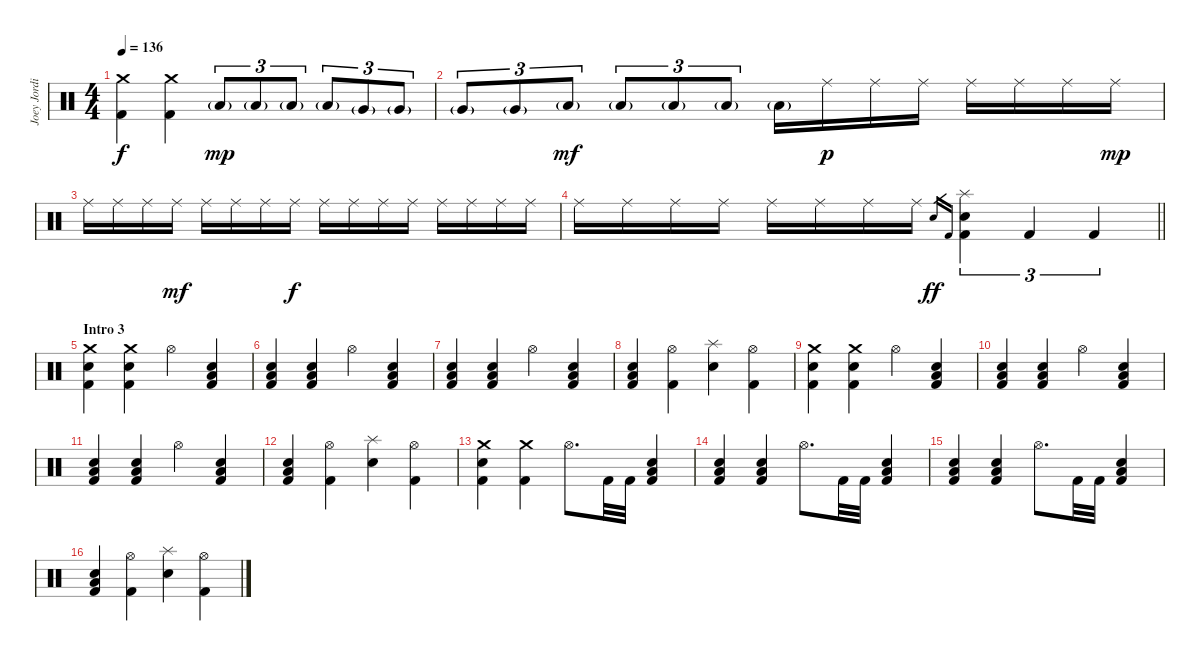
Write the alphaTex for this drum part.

\track ("Joey Jordison" "Joey Jordi") {instrument percussion}
\staff {score}
\articulation defaults
\ts (4 4)
\tempo 136
\clef neutral
\ks c
("Crash medium (hit)" "Kick (hit) 2").4{dy f} ("Crash medium (hit)" "Kick (hit) 2").4 "Low Tom (hit)"{g}.8{tu (3 2) dy mp balance 16} "Low Tom (hit)"{g}.8{tu (3 2)} "Low Tom (hit)"{g}.8{tu (3 2)} "Low Tom (hit)"{g}.8{tu (3 2)} "Very Low Tom (hit)"{g}.8{tu (3 2)} "Very Low Tom (hit)"{g}.8{tu (3 2)} |
"Very Low Tom (hit)"{g}.8{tu (3 2)} "Very Low Tom (hit)"{g}.8{tu (3 2)} "Low Floor Tom (hit)"{g}.8{tu (3 2) dy mf} "Low Floor Tom (hit)"{g}.8{tu (3 2)} "Low Floor Tom (hit)"{g}.8{tu (3 2)} "Low Floor Tom (hit)"{g}.8{tu (3 2)} "Low Floor Tom (hit)"{g}.16 "Ride (middle)".16{dy p balance 8} "Ride (middle)".16 "Ride (middle)".16 "Ride (middle)".16 "Ride (middle)".16 "Ride (middle)".16 "Ride (middle)".16{dy mp} |
"Ride (middle)".16 "Ride (middle)".16 "Ride (middle)".16 "Ride (middle)".16{dy mf} "Ride (middle)".16 "Ride (middle)".16 "Ride (middle)".16 "Ride (middle)".16{dy f} "Ride (middle)".16 "Ride (middle)".16 "Ride (middle)".16 "Ride (middle)".16 "Ride (middle)".16 "Ride (middle)".16 "Ride (middle)".16 "Ride (middle)".16 |
\barLineRight lightlight "Ride (middle)".16 "Ride (middle)".16 "Ride (middle)".16 "Ride (middle)".16 "Ride (middle)".16 "Ride (middle)".16 "Ride (middle)".16 "Ride (middle)".16 "Electric Snare (hit)".16{gr dy ff} "Kick (hit) 2".16{gr}
("Splash (hit)" "Electric Snare (hit)" "Kick (hit) 2").4{tu (3 2)} "Kick (hit) 2".4{tu (3 2)} "Kick (hit) 2".4{tu (3 2)} |
\section ("" "Intro 3")
("Crash medium (hit)" "Electric Snare (hit)" "Kick (hit) 2").4 ("Crash medium (hit)" "Electric Snare (hit)" "Kick (hit) 2").4 "Hi-Hat (open)".4 ("Electric Snare (hit)" "Low Floor Tom (hit)" "Kick (hit) 2").4 |
("Electric Snare (hit)" "Low Floor Tom (hit)" "Kick (hit) 2").4 ("Electric Snare (hit)" "Low Floor Tom (hit)" "Kick (hit) 2").4 "Hi-Hat (open)".4 ("Electric Snare (hit)" "Low Floor Tom (hit)" "Kick (hit) 2").4 |
("Electric Snare (hit)" "Low Floor Tom (hit)" "Kick (hit) 2").4 ("Electric Snare (hit)" "Low Floor Tom (hit)" "Kick (hit) 2").4 "Hi-Hat (open)".4 ("Electric Snare (hit)" "Low Floor Tom (hit)" "Kick (hit) 2").4 |
("Electric Snare (hit)" "Low Floor Tom (hit)" "Kick (hit) 2").4 ("Hi-Hat (open)" "Kick (hit) 2").4 ("Splash (hit)" "Electric Snare (hit)").4 ("Hi-Hat (open)" "Kick (hit) 2").4 |
("Crash medium (hit)" "Electric Snare (hit)" "Kick (hit) 2").4 ("Crash medium (hit)" "Electric Snare (hit)" "Kick (hit) 2").4 "Hi-Hat (open)".4 ("Electric Snare (hit)" "Low Floor Tom (hit)" "Kick (hit) 2").4 |
("Electric Snare (hit)" "Low Floor Tom (hit)" "Kick (hit) 2").4 ("Electric Snare (hit)" "Low Floor Tom (hit)" "Kick (hit) 2").4 "Hi-Hat (open)".4 ("Electric Snare (hit)" "Low Floor Tom (hit)" "Kick (hit) 2").4 |
("Electric Snare (hit)" "Low Floor Tom (hit)" "Kick (hit) 2").4 ("Electric Snare (hit)" "Low Floor Tom (hit)" "Kick (hit) 2").4 "Hi-Hat (open)".4 ("Electric Snare (hit)" "Low Floor Tom (hit)" "Kick (hit) 2").4 |
("Electric Snare (hit)" "Low Floor Tom (hit)" "Kick (hit) 2").4 ("Hi-Hat (open)" "Kick (hit) 2").4 ("Splash (hit)" "Electric Snare (hit)").4 ("Hi-Hat (open)" "Kick (hit) 2").4 |
("Crash medium (hit)" "Electric Snare (hit)" "Kick (hit) 2").4 ("Crash medium (hit)" "Kick (hit) 2").4 "Hi-Hat (open)".8{d} "Kick (hit) 2".32 "Kick (hit) 2".32 ("Electric Snare (hit)" "Low Floor Tom (hit)" "Kick (hit) 2").4 |
("Electric Snare (hit)" "Low Floor Tom (hit)" "Kick (hit) 2").4 ("Electric Snare (hit)" "Low Floor Tom (hit)" "Kick (hit) 2").4 "Hi-Hat (open)".8{d} "Kick (hit) 2".32 "Kick (hit) 2".32 ("Electric Snare (hit)" "Low Floor Tom (hit)" "Kick (hit) 2").4 |
("Electric Snare (hit)" "Low Floor Tom (hit)" "Kick (hit) 2").4 ("Electric Snare (hit)" "Low Floor Tom (hit)" "Kick (hit) 2").4 "Hi-Hat (open)".8{d} "Kick (hit) 2".32 "Kick (hit) 2".32 ("Electric Snare (hit)" "Low Floor Tom (hit)" "Kick (hit) 2").4 |
("Electric Snare (hit)" "Low Floor Tom (hit)" "Kick (hit) 2").4 ("Hi-Hat (open)" "Kick (hit) 2").4 ("Splash (hit)" "Electric Snare (hit)").4 ("Hi-Hat (open)" "Kick (hit) 2").4
